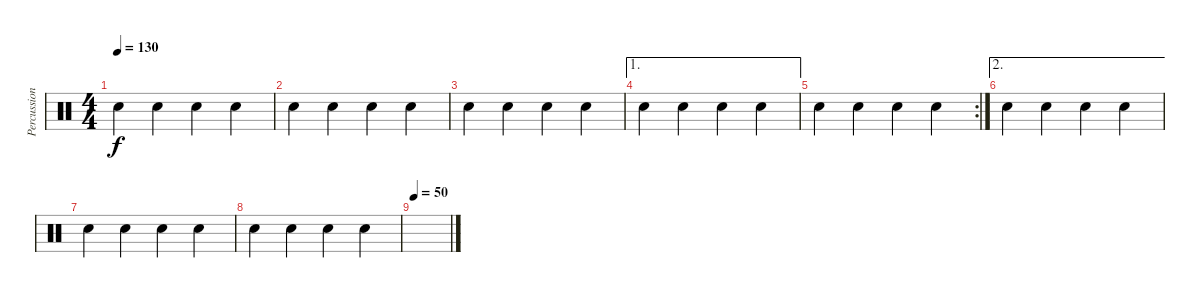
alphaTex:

\track ("Percussions" "Percussion") {instrument percussion}
\staff {score}
\articulation defaults
\ts (4 4)
\tempo 130
\clef neutral
\ks c "Hand Clap (hit)".4{dy f} "Hand Clap (hit)".4 "Hand Clap (hit)".4 "Hand Clap (hit)".4
|
"Hand Clap (hit)".4 "Hand Clap (hit)".4 "Hand Clap (hit)".4 "Hand Clap (hit)".4 |
"Hand Clap (hit)".4 "Hand Clap (hit)".4 "Hand Clap (hit)".4 "Hand Clap (hit)".4 |
\ae 1 "Hand Clap (hit)".4 "Hand Clap (hit)".4 "Hand Clap (hit)".4 "Hand Clap (hit)".4
|
\rc 2 "Hand Clap (hit)".4 "Hand Clap (hit)".4 "Hand Clap (hit)".4 "Hand Clap (hit)".4
|
\ae 2 "Hand Clap (hit)".4 "Hand Clap (hit)".4 "Hand Clap (hit)".4 "Hand Clap (hit)".4
|
"Hand Clap (hit)".4 "Hand Clap (hit)".4 "Hand Clap (hit)".4 "Hand Clap (hit)".4 |
"Hand Clap (hit)".4 "Hand Clap (hit)".4 "Hand Clap (hit)".4 "Hand Clap (hit)".4 |
\tempo 50
